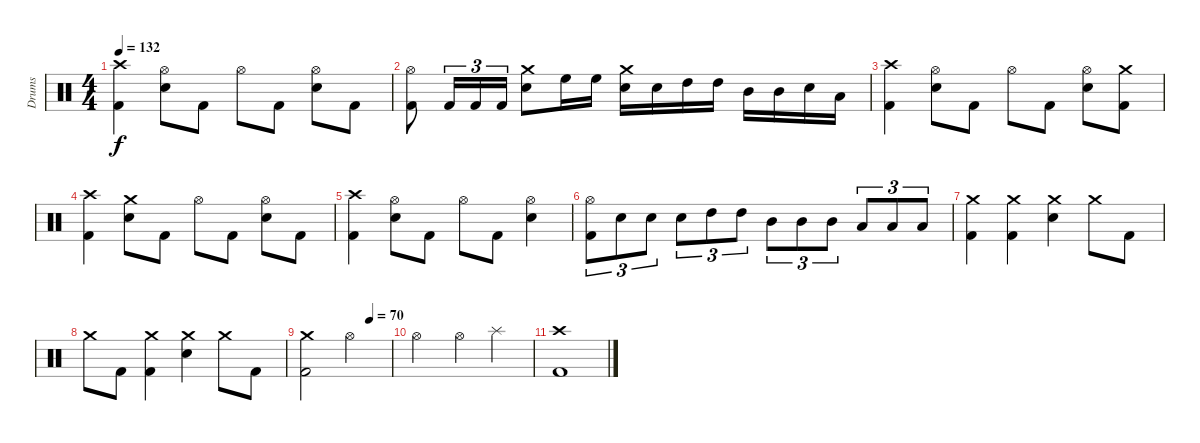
\track ("Drums" "Drums") {instrument percussion}
\staff {score}
\articulation defaults
\ts (4 4)
\tempo 132
\clef neutral
\ks c
("Crash high (hit)" "Kick (hit) 2").4{dy f} ("Hi-Hat (open)" "Snare (hit) 2").8 "Kick (hit) 2".8 "Hi-Hat (open)".8 "Kick (hit) 2".8 ("Hi-Hat (open)" "Snare (hit) 2").8 "Kick (hit) 2".8 |
("Hi-Hat (open)" "Kick (hit) 2").8 "Kick (hit) 2".16{tu (3 2)} "Kick (hit) 2".16{tu (3 2)} "Kick (hit) 2".16{tu (3 2)} ("Crash medium (hit)" "Snare (hit) 2").8 "High Floor Tom (hit)".16 "High Floor Tom (hit)".16 ("Crash medium (hit)" "Snare (hit) 2").16 "Snare (hit) 2".16 "High Tom (hit)".16 "High Tom (hit)".16 "Mid Tom (hit)".16 "Mid Tom (hit)".16 "Snare (hit) 2".16 "Low Tom (hit)".16 |
("Crash high (hit)" "Kick (hit) 2").4 ("Hi-Hat (open)" "Snare (hit) 2").8 "Kick (hit) 2".8 "Hi-Hat (open)".8 "Kick (hit) 2".8 ("Hi-Hat (open)" "Snare (hit) 2").8 ("Crash medium (hit)" "Kick (hit) 2").8 |
("Crash high (hit)" "Kick (hit) 2").4 ("Crash medium (hit)" "Snare (hit) 2").8 "Kick (hit) 2".8 "Hi-Hat (open)".8 "Kick (hit) 2".8 ("Hi-Hat (open)" "Snare (hit) 2").8 "Kick (hit) 2".8 |
("Crash high (hit)" "Kick (hit) 2").4 ("Hi-Hat (open)" "Snare (hit) 2").8 "Kick (hit) 2".8 "Hi-Hat (open)".8 "Kick (hit) 2".8 ("Hi-Hat (open)" "Snare (hit) 2").4 |
("Hi-Hat (open)" "Kick (hit) 2").8{tu (3 2)} "Snare (hit) 2".8{tu (3 2)} "Snare (hit) 2".8{tu (3 2)} "Snare (hit) 2".8{tu (3 2)} "High Tom (hit)".8{tu (3 2)} "High Tom (hit)".8{tu (3 2)} "Mid Tom (hit)".8{tu (3 2)} "Mid Tom (hit)".8{tu (3 2)} "Mid Tom (hit)".8{tu (3 2)} "Low Tom (hit)".8{tu (3 2)} "Low Tom (hit)".8{tu (3 2)} "Low Tom (hit)".8{tu (3 2)} |
("Crash medium (hit)" "Kick (hit) 2").4 ("Crash medium (hit)" "Kick (hit) 2").4 ("Crash medium (hit)" "Snare (hit) 2").4 "Crash medium (hit)".8 "Kick (hit) 2".8 |
"Crash medium (hit)".8 "Kick (hit) 2".8 ("Crash medium (hit)" "Kick (hit) 2").4 ("Crash medium (hit)" "Snare (hit) 2").4 "Crash medium (hit)".8 "Kick (hit) 2".8 |
\tempo (70 0.75)
("Crash medium (hit)" "Kick (hit) 2").2 "Hi-Hat (open)".2 |
"Hi-Hat (open)".2 "Hi-Hat (open)".4 "Splash (hit)".4 |
("Crash high (hit)" "Kick (hit) 2").1
